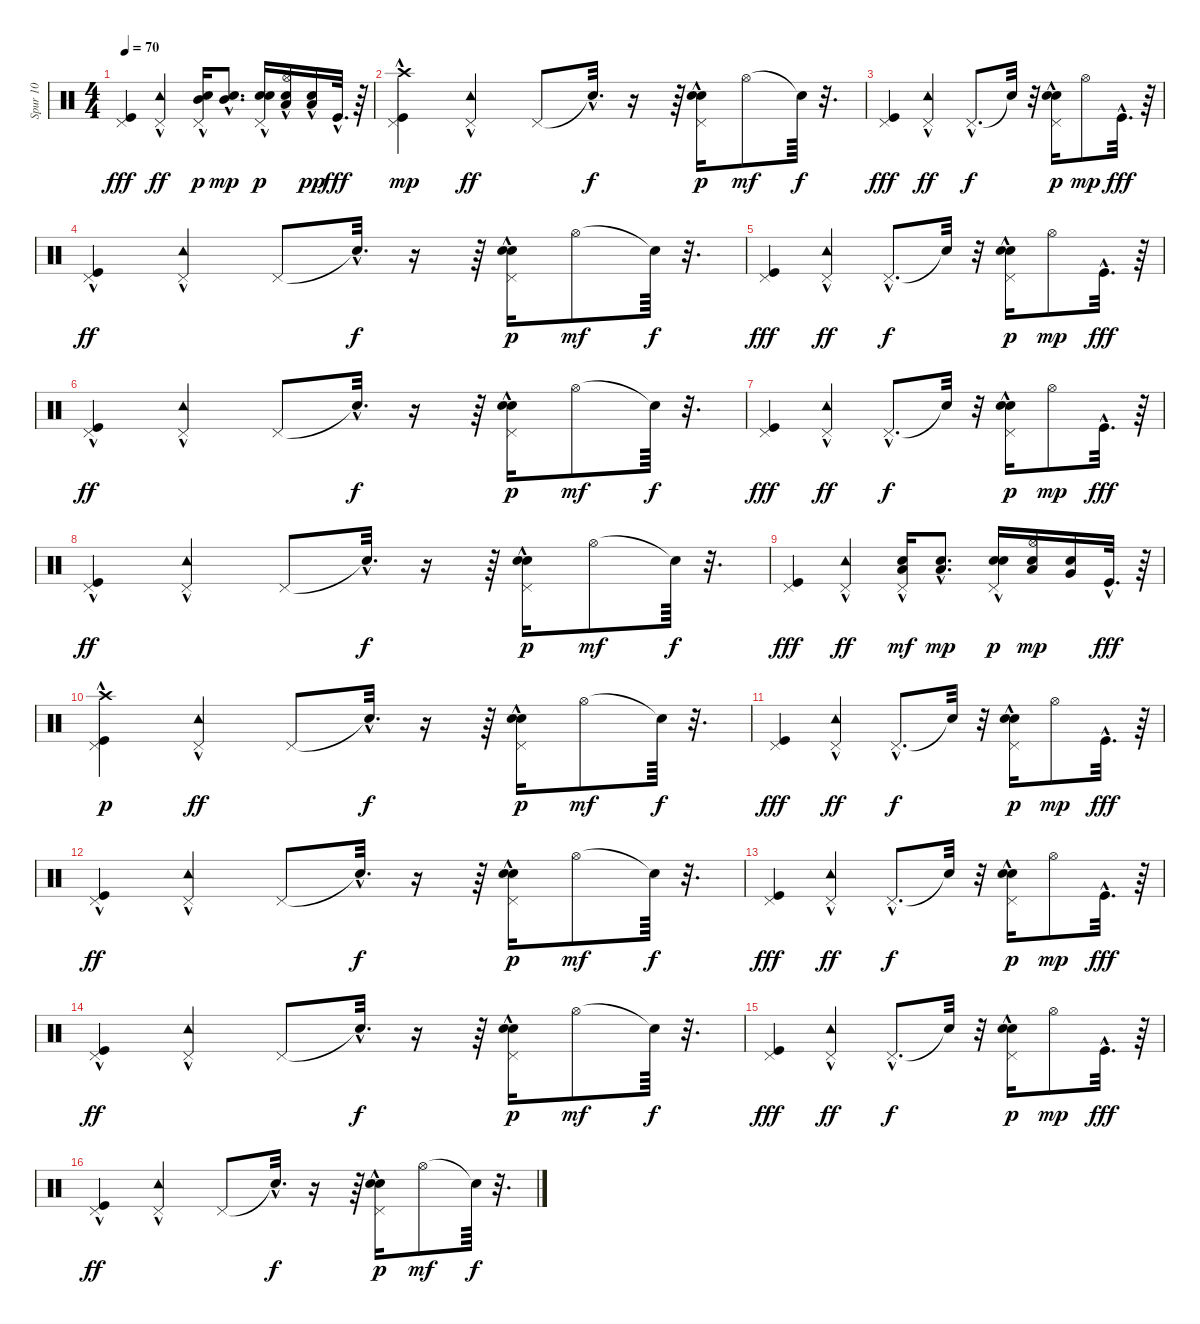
\track ("Spur 10" "Spur 10") {instrument percussion}
\staff {score}
\articulation defaults
\ts (4 4)
\tempo 70
\clef neutral
\ks c
("Kick (hit)" "Pedal Hi-Hat (hit)").4{dy fff} ("Pedal Hi-Hat (hit)"{hac} "Tambourine (hit)").4{dy ff} ("Pedal Hi-Hat (hit)"{hac} "Mid Tom (hit)" "Electric Snare (hit)").16{dy p} ("Mid Tom (hit)"{hac} "Electric Snare (hit)").8{d dy mp} ("Pedal Hi-Hat (hit)"{hac} "Snare (hit) 2" "Electric Snare (hit)").16{dy p} ("Hi-Hat (open)" "Low Tom (hit)"{hac} "Electric Snare (hit)").16 ("Low Tom (hit)" "Electric Snare (hit)"{hac}).16{dy pp} "Kick (hit)"{hac}.32{d dy fff} r.64 |
("Kick (hit)" "Pedal Hi-Hat (hit)"{hac} "Crash high (hit)"{hac}).4{dy mp} ("Tambourine (hit)" "Pedal Hi-Hat (hit)"{hac}).4{dy ff} "Pedal Hi-Hat (hit)".8 "Snare (hit)"{hac t}.32{d dy f} r.16 r.64 ("Pedal Hi-Hat (hit)"{hac} "Electric Snare (hit)" "Snare (hit) 2"{hac}).16{dy p} "Hi-Hat (open)".8{dy mf} "Snare (hit)"{t}.64{dy f} r.32{d} |
("Kick (hit)" "Pedal Hi-Hat (hit)").4{dy fff} ("Pedal Hi-Hat (hit)"{hac} "Tambourine (hit)").4{dy ff} "Pedal Hi-Hat (hit)"{hac}.8{d dy f} "Snare (hit)"{t}.32 r.32 ("Pedal Hi-Hat (hit)"{hac} "Snare (hit) 2" "Electric Snare (hit)").16{dy p} "Hi-Hat (open)".8{dy mp} "Kick (hit)"{hac}.32{d dy fff} r.64 |
("Kick (hit)" "Pedal Hi-Hat (hit)"{hac}).4{dy ff} ("Tambourine (hit)" "Pedal Hi-Hat (hit)"{hac}).4 "Pedal Hi-Hat (hit)".8 "Snare (hit)"{hac t}.32{d dy f} r.16 r.64 ("Pedal Hi-Hat (hit)"{hac} "Electric Snare (hit)" "Snare (hit) 2"{hac}).16{dy p} "Hi-Hat (open)".8{dy mf} "Snare (hit)"{t}.64{dy f} r.32{d} |
("Kick (hit)" "Pedal Hi-Hat (hit)").4{dy fff} ("Pedal Hi-Hat (hit)"{hac} "Tambourine (hit)").4{dy ff} "Pedal Hi-Hat (hit)"{hac}.8{d dy f} "Snare (hit)"{t}.32 r.32 ("Pedal Hi-Hat (hit)"{hac} "Snare (hit) 2" "Electric Snare (hit)").16{dy p} "Hi-Hat (open)".8{dy mp} "Kick (hit)"{hac}.32{d dy fff} r.64 |
("Kick (hit)" "Pedal Hi-Hat (hit)"{hac}).4{dy ff} ("Tambourine (hit)" "Pedal Hi-Hat (hit)"{hac}).4 "Pedal Hi-Hat (hit)".8 "Snare (hit)"{hac t}.32{d dy f} r.16 r.64 ("Pedal Hi-Hat (hit)"{hac} "Electric Snare (hit)" "Snare (hit) 2"{hac}).16{dy p} "Hi-Hat (open)".8{dy mf} "Snare (hit)"{t}.64{dy f} r.32{d} |
("Kick (hit)" "Pedal Hi-Hat (hit)").4{dy fff} ("Pedal Hi-Hat (hit)"{hac} "Tambourine (hit)").4{dy ff} "Pedal Hi-Hat (hit)"{hac}.8{d dy f} "Snare (hit)"{t}.32 r.32 ("Pedal Hi-Hat (hit)"{hac} "Snare (hit) 2" "Electric Snare (hit)").16{dy p} "Hi-Hat (open)".8{dy mp} "Kick (hit)"{hac}.32{d dy fff} r.64 |
("Kick (hit)" "Pedal Hi-Hat (hit)"{hac}).4{dy ff} ("Tambourine (hit)" "Pedal Hi-Hat (hit)"{hac}).4 "Pedal Hi-Hat (hit)".8 "Snare (hit)"{hac t}.32{d dy f} r.16 r.64 ("Pedal Hi-Hat (hit)"{hac} "Electric Snare (hit)" "Snare (hit) 2"{hac}).16{dy p} "Hi-Hat (open)".8{dy mf} "Snare (hit)"{t}.64{dy f} r.32{d} |
("Kick (hit)" "Pedal Hi-Hat (hit)").4{dy fff} ("Pedal Hi-Hat (hit)"{hac} "Tambourine (hit)").4{dy ff} ("Pedal Hi-Hat (hit)"{hac} "Electric Snare (hit)" "Low Tom (hit)").16{dy mf} ("Electric Snare (hit)"{hac} "Low Tom (hit)"{hac}).8{d dy mp} ("Pedal Hi-Hat (hit)"{hac} "Snare (hit) 2" "Electric Snare (hit)").16{dy p} ("Hi-Hat (open)" "Low Tom (hit)" "Electric Snare (hit)").16{dy mp} ("Very Low Tom (hit)" "Electric Snare (hit)").16 "Kick (hit)"{hac}.32{d dy fff} r.64 |
("Kick (hit)" "Pedal Hi-Hat (hit)"{hac} "Crash high (hit)"{hac}).4{dy p} ("Tambourine (hit)" "Pedal Hi-Hat (hit)"{hac}).4{dy ff} "Pedal Hi-Hat (hit)".8 "Snare (hit)"{hac t}.32{d dy f} r.16 r.64 ("Pedal Hi-Hat (hit)"{hac} "Electric Snare (hit)" "Snare (hit) 2"{hac}).16{dy p} "Hi-Hat (open)".8{dy mf} "Snare (hit)"{t}.64{dy f} r.32{d} |
("Kick (hit)" "Pedal Hi-Hat (hit)").4{dy fff} ("Pedal Hi-Hat (hit)"{hac} "Tambourine (hit)").4{dy ff} "Pedal Hi-Hat (hit)"{hac}.8{d dy f} "Snare (hit)"{t}.32 r.32 ("Pedal Hi-Hat (hit)"{hac} "Snare (hit) 2" "Electric Snare (hit)").16{dy p} "Hi-Hat (open)".8{dy mp} "Kick (hit)"{hac}.32{d dy fff} r.64 |
("Kick (hit)" "Pedal Hi-Hat (hit)"{hac}).4{dy ff} ("Tambourine (hit)" "Pedal Hi-Hat (hit)"{hac}).4 "Pedal Hi-Hat (hit)".8 "Snare (hit)"{hac t}.32{d dy f} r.16 r.64 ("Pedal Hi-Hat (hit)"{hac} "Electric Snare (hit)" "Snare (hit) 2"{hac}).16{dy p} "Hi-Hat (open)".8{dy mf} "Snare (hit)"{t}.64{dy f} r.32{d} |
("Kick (hit)" "Pedal Hi-Hat (hit)").4{dy fff} ("Pedal Hi-Hat (hit)"{hac} "Tambourine (hit)").4{dy ff} "Pedal Hi-Hat (hit)"{hac}.8{d dy f} "Snare (hit)"{t}.32 r.32 ("Pedal Hi-Hat (hit)"{hac} "Snare (hit) 2" "Electric Snare (hit)").16{dy p} "Hi-Hat (open)".8{dy mp} "Kick (hit)"{hac}.32{d dy fff} r.64 |
("Kick (hit)" "Pedal Hi-Hat (hit)"{hac}).4{dy ff} ("Tambourine (hit)" "Pedal Hi-Hat (hit)"{hac}).4 "Pedal Hi-Hat (hit)".8 "Snare (hit)"{hac t}.32{d dy f} r.16 r.64 ("Pedal Hi-Hat (hit)"{hac} "Electric Snare (hit)" "Snare (hit) 2"{hac}).16{dy p} "Hi-Hat (open)".8{dy mf} "Snare (hit)"{t}.64{dy f} r.32{d} |
("Kick (hit)" "Pedal Hi-Hat (hit)").4{dy fff} ("Pedal Hi-Hat (hit)"{hac} "Tambourine (hit)").4{dy ff} "Pedal Hi-Hat (hit)"{hac}.8{d dy f} "Snare (hit)"{t}.32 r.32 ("Pedal Hi-Hat (hit)"{hac} "Snare (hit) 2" "Electric Snare (hit)").16{dy p} "Hi-Hat (open)".8{dy mp} "Kick (hit)"{hac}.32{d dy fff} r.64 |
("Kick (hit)" "Pedal Hi-Hat (hit)"{hac}).4{dy ff} ("Tambourine (hit)" "Pedal Hi-Hat (hit)"{hac}).4 "Pedal Hi-Hat (hit)".8 "Snare (hit)"{hac t}.32{d dy f} r.16 r.64 ("Pedal Hi-Hat (hit)"{hac} "Electric Snare (hit)" "Snare (hit) 2"{hac}).16{dy p} "Hi-Hat (open)".8{dy mf} "Snare (hit)"{t}.64{dy f} r.32{d}
